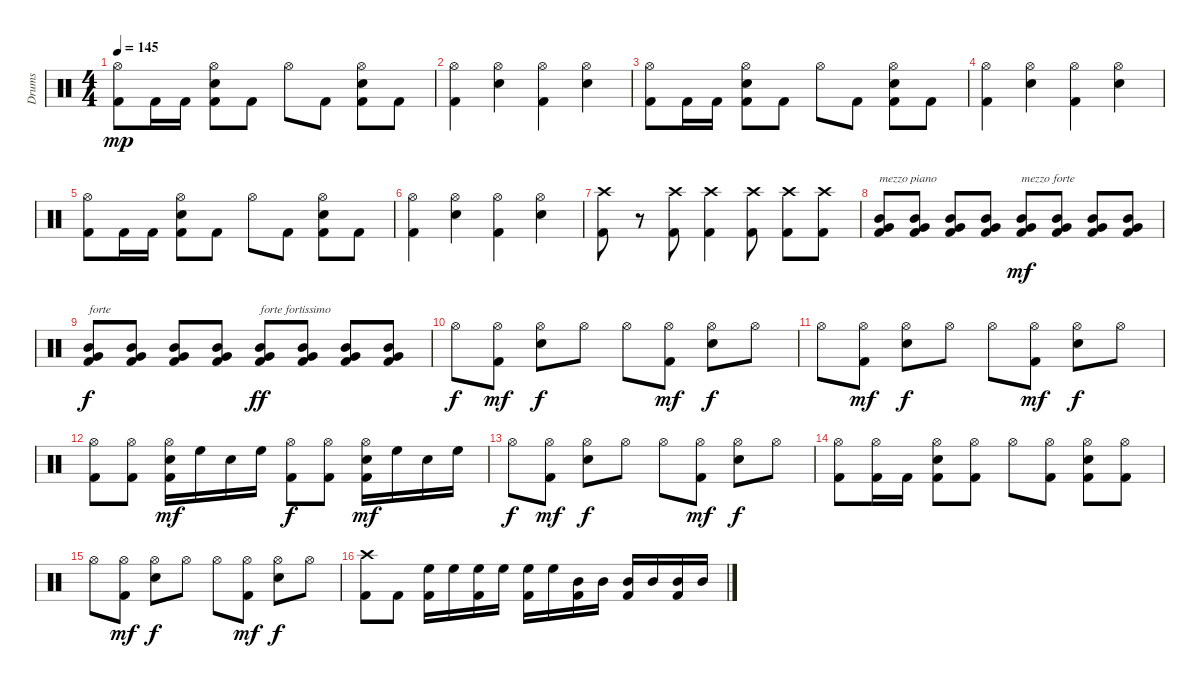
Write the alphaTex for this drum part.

\track ("Drums" "Drums") {instrument percussion}
\staff {score}
\articulation defaults
\ts (4 4)
\tempo 145
\clef neutral
\ks c
("Hi-Hat (open)" "Kick (hit) 2").8{dy mp} "Kick (hit) 2".16 "Kick (hit) 2".16 ("Snare (hit) 2" "Hi-Hat (open)" "Kick (hit) 2").8 "Kick (hit) 2".8 "Hi-Hat (open)".8 "Kick (hit) 2".8 ("Snare (hit) 2" "Hi-Hat (open)" "Kick (hit) 2").8 "Kick (hit) 2".8 |
("Hi-Hat (open)" "Kick (hit) 2").4 ("Snare (hit) 2" "Hi-Hat (open)").4 ("Hi-Hat (open)" "Kick (hit) 2").4 ("Snare (hit) 2" "Hi-Hat (open)").4 |
("Hi-Hat (open)" "Kick (hit) 2").8 "Kick (hit) 2".16 "Kick (hit) 2".16 ("Snare (hit) 2" "Hi-Hat (open)" "Kick (hit) 2").8 "Kick (hit) 2".8 "Hi-Hat (open)".8 "Kick (hit) 2".8 ("Snare (hit) 2" "Hi-Hat (open)" "Kick (hit) 2").8 "Kick (hit) 2".8 |
("Hi-Hat (open)" "Kick (hit) 2").4 ("Snare (hit) 2" "Hi-Hat (open)").4 ("Hi-Hat (open)" "Kick (hit) 2").4 ("Snare (hit) 2" "Hi-Hat (open)").4 |
("Hi-Hat (open)" "Kick (hit) 2").8 "Kick (hit) 2".16 "Kick (hit) 2".16 ("Snare (hit) 2" "Hi-Hat (open)" "Kick (hit) 2").8 "Kick (hit) 2".8 "Hi-Hat (open)".8 "Kick (hit) 2".8 ("Snare (hit) 2" "Hi-Hat (open)" "Kick (hit) 2").8 "Kick (hit) 2".8 |
("Hi-Hat (open)" "Kick (hit) 2").4 ("Snare (hit) 2" "Hi-Hat (open)").4 ("Hi-Hat (open)" "Kick (hit) 2").4 ("Snare (hit) 2" "Hi-Hat (open)").4 |
("Crash high (hit)" "Kick (hit) 2").8 r.8 ("Crash high (hit)" "Kick (hit) 2").8 ("Crash high (hit)" "Kick (hit) 2").4 ("Crash high (hit)" "Kick (hit) 2").8 ("Crash high (hit)" "Kick (hit) 2").8 ("Crash high (hit)" "Kick (hit) 2").8 |
("Mid Tom (hit)" "Very Low Tom (hit)" "Kick (hit) 2").8{txt "mezzo piano"} ("Mid Tom (hit)" "Very Low Tom (hit)" "Kick (hit) 2").8 ("Mid Tom (hit)" "Very Low Tom (hit)" "Kick (hit) 2").8 ("Mid Tom (hit)" "Very Low Tom (hit)" "Kick (hit) 2").8 ("Mid Tom (hit)" "Very Low Tom (hit)" "Kick (hit) 2").8{txt "mezzo forte" dy mf} ("Mid Tom (hit)" "Very Low Tom (hit)" "Kick (hit) 2").8 ("Mid Tom (hit)" "Very Low Tom (hit)" "Kick (hit) 2").8 ("Mid Tom (hit)" "Very Low Tom (hit)" "Kick (hit) 2").8 |
("Mid Tom (hit)" "Very Low Tom (hit)" "Kick (hit) 2").8{txt "forte" dy f} ("Mid Tom (hit)" "Very Low Tom (hit)" "Kick (hit) 2").8 ("Mid Tom (hit)" "Very Low Tom (hit)" "Kick (hit) 2").8 ("Mid Tom (hit)" "Very Low Tom (hit)" "Kick (hit) 2").8 ("Mid Tom (hit)" "Very Low Tom (hit)" "Kick (hit) 2").8{txt "forte fortissimo" dy ff} ("Mid Tom (hit)" "Very Low Tom (hit)" "Kick (hit) 2").8 ("Mid Tom (hit)" "Very Low Tom (hit)" "Kick (hit) 2").8 ("Mid Tom (hit)" "Very Low Tom (hit)" "Kick (hit) 2").8 |
"Hi-Hat (open)".8{dy f} ("Hi-Hat (open)" "Kick (hit) 2").8{dy mf} ("Snare (hit) 2" "Hi-Hat (open)").8{dy f} "Hi-Hat (open)".8 "Hi-Hat (open)".8 ("Hi-Hat (open)" "Kick (hit) 2").8{dy mf} ("Snare (hit) 2" "Hi-Hat (open)").8{dy f} "Hi-Hat (open)".8 |
"Hi-Hat (open)".8 ("Hi-Hat (open)" "Kick (hit) 2").8{dy mf} ("Snare (hit) 2" "Hi-Hat (open)").8{dy f} "Hi-Hat (open)".8 "Hi-Hat (open)".8 ("Hi-Hat (open)" "Kick (hit) 2").8{dy mf} ("Snare (hit) 2" "Hi-Hat (open)").8{dy f} "Hi-Hat (open)".8 |
("Hi-Hat (open)" "Kick (hit) 2").8 ("Hi-Hat (open)" "Kick (hit) 2").8 ("Snare (hit) 2" "Hi-Hat (open)" "Kick (hit) 2").16{dy mf} "High Floor Tom (hit)".16 "Snare (hit) 2".16 "High Floor Tom (hit)".16 ("Hi-Hat (open)" "Kick (hit) 2").8{dy f} ("Hi-Hat (open)" "Kick (hit) 2").8 ("Snare (hit) 2" "Hi-Hat (open)" "Kick (hit) 2").16{dy mf} "High Floor Tom (hit)".16 "Snare (hit) 2".16 "High Floor Tom (hit)".16 |
"Hi-Hat (open)".8{dy f} ("Hi-Hat (open)" "Kick (hit) 2").8{dy mf} ("Snare (hit) 2" "Hi-Hat (open)").8{dy f} "Hi-Hat (open)".8 "Hi-Hat (open)".8 ("Hi-Hat (open)" "Kick (hit) 2").8{dy mf} ("Snare (hit) 2" "Hi-Hat (open)").8{dy f} "Hi-Hat (open)".8 |
("Hi-Hat (open)" "Kick (hit) 2").8 ("Hi-Hat (open)" "Kick (hit) 2").16 "Kick (hit) 2".16 ("Snare (hit) 2" "Hi-Hat (open)" "Kick (hit) 2").8 ("Hi-Hat (open)" "Kick (hit) 2").8 "Hi-Hat (open)".8 ("Hi-Hat (open)" "Kick (hit) 2").8 ("Snare (hit) 2" "Hi-Hat (open)" "Kick (hit) 2").8 ("Hi-Hat (open)" "Kick (hit) 2").8 |
"Hi-Hat (open)".8 ("Hi-Hat (open)" "Kick (hit) 2").8{dy mf} ("Snare (hit) 2" "Hi-Hat (open)").8{dy f} "Hi-Hat (open)".8 "Hi-Hat (open)".8 ("Hi-Hat (open)" "Kick (hit) 2").8{dy mf} ("Snare (hit) 2" "Hi-Hat (open)").8{dy f} "Hi-Hat (open)".8 |
("Crash high (hit)" "Kick (hit) 2").8 "Kick (hit) 2".8 ("High Floor Tom (hit)" "Kick (hit) 2").16 "High Floor Tom (hit)".16 ("High Floor Tom (hit)" "Kick (hit) 2").16 "High Floor Tom (hit)".16 ("High Floor Tom (hit)" "Kick (hit) 2").16 "High Floor Tom (hit)".16 ("Mid Tom (hit)" "Kick (hit) 2").16 "Mid Tom (hit)".16 ("Mid Tom (hit)" "Kick (hit) 2").16 "Mid Tom (hit)".16 ("Mid Tom (hit)" "Kick (hit) 2").16 "Mid Tom (hit)".16
